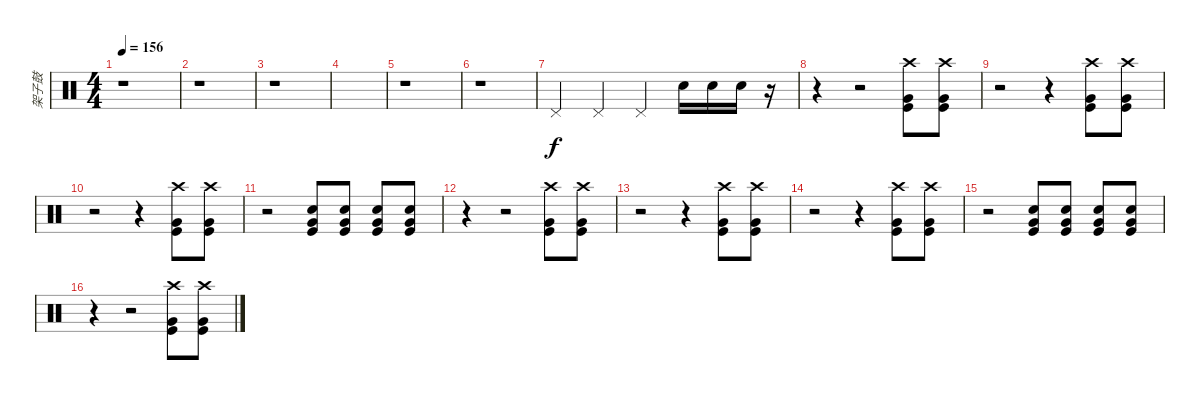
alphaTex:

\track ("架子鼓" "架子鼓") {instrument percussion}
\staff {score}
\articulation defaults
\ts (4 4)
\tempo 156
\clef neutral
\ks c
r.1{dy f} |
r.1 |
r.1 |
|
r.1 |
r.1 |
"Pedal Hi-Hat (hit)".4 "Pedal Hi-Hat (hit)".4 "Pedal Hi-Hat (hit)".4 "Snare (hit) 2".16 "Snare (hit) 2".16 "Snare (hit) 2".16 r.16 |
r.4 r.2 ("Crash high (hit)" "Kick (hit)" "Very Low Tom (hit)").8 ("Crash high (hit)" "Kick (hit)" "Very Low Tom (hit)").8 |
r.2 r.4 ("Crash high (hit)" "Kick (hit)" "Very Low Tom (hit)").8 ("Crash high (hit)" "Kick (hit)" "Very Low Tom (hit)").8 |
r.2 r.4 ("Crash high (hit)" "Kick (hit)" "Very Low Tom (hit)").8 ("Crash high (hit)" "Kick (hit)" "Very Low Tom (hit)").8 |
r.2 ("Snare (hit) 2" "Very Low Tom (hit)" "Kick (hit)").8 ("Snare (hit) 2" "Very Low Tom (hit)" "Kick (hit)").8 ("Snare (hit) 2" "Very Low Tom (hit)" "Kick (hit)").8 ("Snare (hit) 2" "Very Low Tom (hit)" "Kick (hit)").8 |
r.4 r.2 ("Crash high (hit)" "Kick (hit)" "Very Low Tom (hit)").8 ("Crash high (hit)" "Kick (hit)" "Very Low Tom (hit)").8 |
r.2 r.4 ("Crash high (hit)" "Kick (hit)" "Very Low Tom (hit)").8 ("Crash high (hit)" "Kick (hit)" "Very Low Tom (hit)").8 |
r.2 r.4 ("Crash high (hit)" "Kick (hit)" "Very Low Tom (hit)").8 ("Crash high (hit)" "Kick (hit)" "Very Low Tom (hit)").8 |
r.2 ("Snare (hit) 2" "Very Low Tom (hit)" "Kick (hit)").8 ("Snare (hit) 2" "Very Low Tom (hit)" "Kick (hit)").8 ("Snare (hit) 2" "Very Low Tom (hit)" "Kick (hit)").8 ("Snare (hit) 2" "Very Low Tom (hit)" "Kick (hit)").8 |
r.4 r.2 ("Crash high (hit)" "Kick (hit)" "Very Low Tom (hit)").8 ("Crash high (hit)" "Kick (hit)" "Very Low Tom (hit)").8
